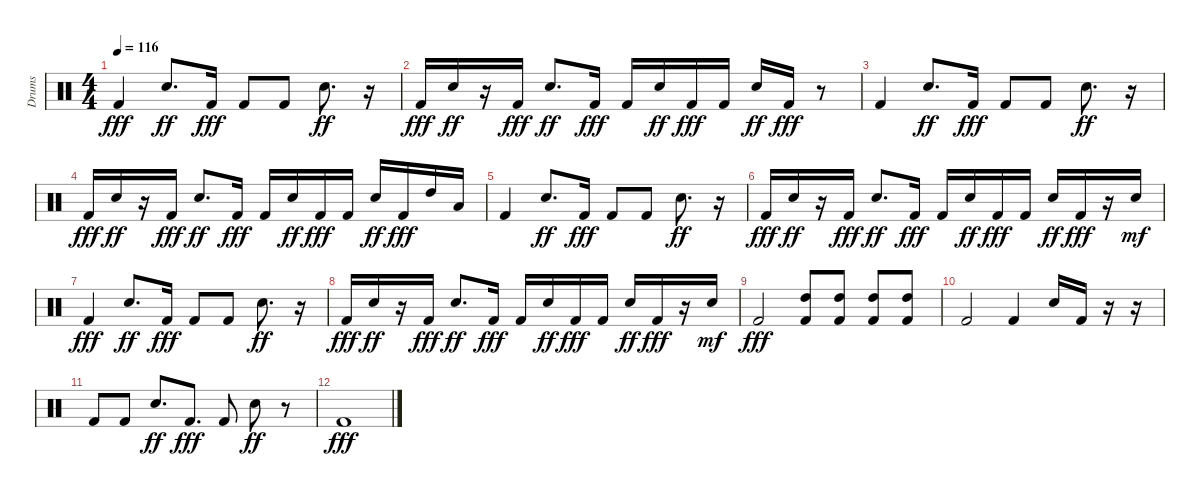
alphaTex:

\track ("Drums" "Drums") {instrument percussion}
\staff {score}
\articulation defaults
\ts (4 4)
\tempo 116
\clef neutral
\ks c "Kick (hit) 2".4{dy fff} "Snare (hit) 2".8{d dy ff} "Kick (hit) 2".16{dy fff} "Kick (hit) 2".8 "Kick (hit) 2".8 "Snare (hit) 2".8{d dy ff}
r.16 |
"Kick (hit) 2".16{dy fff} "Snare (hit) 2".16{dy ff} r.16 "Kick (hit) 2".16{dy fff} "Snare (hit) 2".8{d dy ff} "Kick (hit) 2".16{dy fff} "Kick (hit) 2".16 "Snare (hit) 2".16{dy ff} "Kick (hit) 2".16{dy fff} "Kick (hit) 2".16 "Snare (hit) 2".16{dy ff} "Kick (hit) 2".16{dy fff} r.8 |
"Kick (hit) 2".4 "Snare (hit) 2".8{d dy ff} "Kick (hit) 2".16{dy fff} "Kick (hit) 2".8 "Kick (hit) 2".8 "Snare (hit) 2".8{d dy ff} r.16 |
"Kick (hit) 2".16{dy fff} "Snare (hit) 2".16{dy ff} r.16 "Kick (hit) 2".16{dy fff} "Snare (hit) 2".8{d dy ff} "Kick (hit) 2".16{dy fff} "Kick (hit) 2".16 "Snare (hit) 2".16{dy ff} "Kick (hit) 2".16{dy fff} "Kick (hit) 2".16 "Snare (hit) 2".16{dy ff} "Kick (hit) 2".16{dy fff} "High Tom (hit)".16 "Low Tom (hit)".16 |
"Kick (hit) 2".4 "Snare (hit) 2".8{d dy ff} "Kick (hit) 2".16{dy fff} "Kick (hit) 2".8 "Kick (hit) 2".8 "Snare (hit) 2".8{d dy ff} r.16 |
"Kick (hit) 2".16{dy fff} "Snare (hit) 2".16{dy ff} r.16 "Kick (hit) 2".16{dy fff} "Snare (hit) 2".8{d dy ff} "Kick (hit) 2".16{dy fff} "Kick (hit) 2".16 "Snare (hit) 2".16{dy ff} "Kick (hit) 2".16{dy fff} "Kick (hit) 2".16 "Snare (hit) 2".16{dy ff} "Kick (hit) 2".16{dy fff} r.16 "Snare (hit) 2".16{dy mf} |
"Kick (hit) 2".4{dy fff} "Snare (hit) 2".8{d dy ff} "Kick (hit) 2".16{dy fff} "Kick (hit) 2".8 "Kick (hit) 2".8 "Snare (hit) 2".8{d dy ff} r.16 |
"Kick (hit) 2".16{dy fff} "Snare (hit) 2".16{dy ff} r.16 "Kick (hit) 2".16{dy fff} "Snare (hit) 2".8{d dy ff} "Kick (hit) 2".16{dy fff} "Kick (hit) 2".16 "Snare (hit) 2".16{dy ff} "Kick (hit) 2".16{dy fff} "Kick (hit) 2".16 "Snare (hit) 2".16{dy ff} "Kick (hit) 2".16{dy fff} r.16 "Snare (hit) 2".16{dy mf} |
"Kick (hit) 2".2{dy fff} ("Kick (hit) 2" "High Tom (hit)").8 ("Kick (hit) 2" "High Tom (hit)").8 ("Kick (hit) 2" "High Tom (hit)").8 ("Kick (hit) 2" "High Tom (hit)").8 |
"Kick (hit) 2".2 "Kick (hit) 2".4 "Snare (hit) 2".16 "Kick (hit) 2".16 r.16 r.16 |
"Kick (hit) 2".8 "Kick (hit) 2".8 "Snare (hit) 2".8{d dy ff} "Kick (hit) 2".8{d dy fff} "Kick (hit) 2".8 "Snare (hit) 2".8{dy ff} r.8 |
"Kick (hit) 2".1{dy fff}
